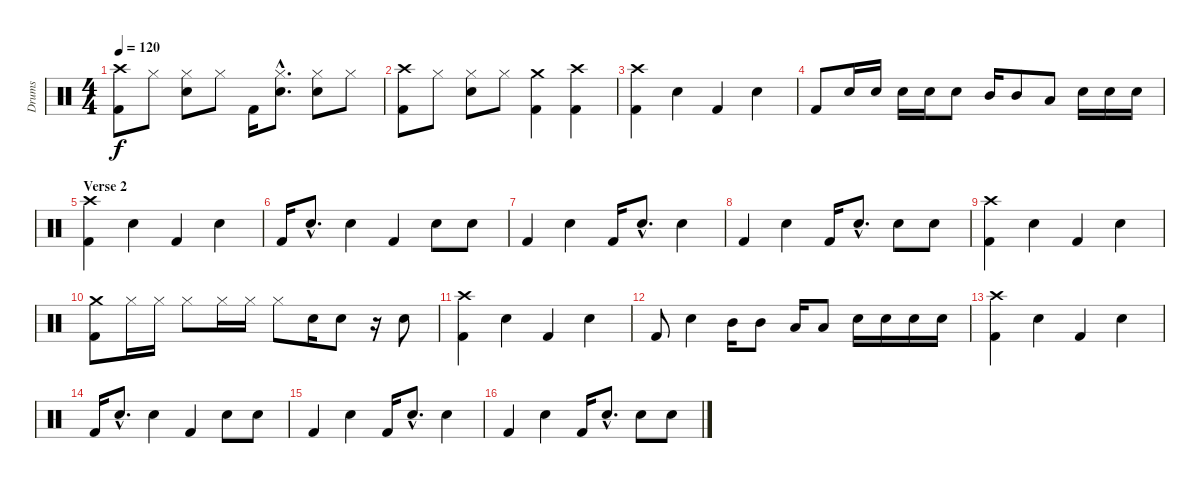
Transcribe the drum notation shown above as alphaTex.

\track ("Drums" "Drums") {instrument percussion}
\staff {score}
\articulation defaults
\ts (4 4)
\tempo 120
\clef neutral
\ks c
("Crash high (hit)" "Kick (hit) 2").8{dy f} "Hi-Hat (closed)".8 ("Electric Snare (hit)" "Hi-Hat (closed)").8 "Hi-Hat (closed)".8 "Kick (hit) 2".16 ("Electric Snare (hit)"{hac} "Hi-Hat (closed)"{hac}).8{d} ("Electric Snare (hit)" "Hi-Hat (closed)").8 "Hi-Hat (closed)".8 |
("Crash high (hit)" "Kick (hit) 2").8 "Hi-Hat (closed)".8 ("Electric Snare (hit)" "Hi-Hat (closed)").8 "Hi-Hat (closed)".8 ("Crash medium (hit)" "Kick (hit) 2").4 ("Crash high (hit)" "Kick (hit) 2").4 |
("Crash high (hit)" "Kick (hit) 2").4 "Electric Snare (hit)".4 "Kick (hit) 2".4 "Electric Snare (hit)".4 |
"Kick (hit) 2".8 "Electric Snare (hit)".16 "Electric Snare (hit)".16 "Electric Snare (hit)".16 "Electric Snare (hit)".16 "Electric Snare (hit)".8 "Mid Tom (hit)".16 "Mid Tom (hit)".8 "Low Tom (hit)".8 "Electric Snare (hit)".16 "Electric Snare (hit)".16 "Electric Snare (hit)".16 |
\section ("" "Verse 2")
("Crash high (hit)" "Kick (hit) 2").4 "Electric Snare (hit)".4 "Kick (hit) 2".4 "Electric Snare (hit)".4 |
"Kick (hit) 2".16 "Electric Snare (hit)"{hac}.8{d} "Electric Snare (hit)".4 "Kick (hit) 2".4 "Electric Snare (hit)".8 "Electric Snare (hit)".8 |
"Kick (hit) 2".4 "Electric Snare (hit)".4 "Kick (hit) 2".16 "Electric Snare (hit)"{hac}.8{d} "Electric Snare (hit)".4 |
"Kick (hit) 2".4 "Electric Snare (hit)".4 "Kick (hit) 2".16 "Electric Snare (hit)"{hac}.8{d} "Electric Snare (hit)".8 "Electric Snare (hit)".8 |
("Crash high (hit)" "Kick (hit) 2").4 "Electric Snare (hit)".4 "Kick (hit) 2".4 "Electric Snare (hit)".4 |
("Crash medium (hit)" "Kick (hit) 2").8 "Hi-Hat (closed)".16 "Hi-Hat (closed)".16 "Hi-Hat (closed)".8 "Hi-Hat (closed)".16 "Hi-Hat (closed)".16 "Hi-Hat (closed)".8 "Electric Snare (hit)".16 "Electric Snare (hit)".8 r.16 "Electric Snare (hit)".8 |
("Crash high (hit)" "Kick (hit) 2").4 "Electric Snare (hit)".4 "Kick (hit) 2".4 "Electric Snare (hit)".4 |
"Kick (hit) 2".8 "Electric Snare (hit)".4 "Mid Tom (hit)".16 "Mid Tom (hit)".8 "Low Tom (hit)".16 "Low Tom (hit)".8 "Electric Snare (hit)".16 "Electric Snare (hit)".16 "Electric Snare (hit)".16 "Electric Snare (hit)".16 |
("Crash high (hit)" "Kick (hit) 2").4 "Electric Snare (hit)".4 "Kick (hit) 2".4 "Electric Snare (hit)".4 |
"Kick (hit) 2".16 "Electric Snare (hit)"{hac}.8{d} "Electric Snare (hit)".4 "Kick (hit) 2".4 "Electric Snare (hit)".8 "Electric Snare (hit)".8 |
"Kick (hit) 2".4 "Electric Snare (hit)".4 "Kick (hit) 2".16 "Electric Snare (hit)"{hac}.8{d} "Electric Snare (hit)".4 |
"Kick (hit) 2".4 "Electric Snare (hit)".4 "Kick (hit) 2".16 "Electric Snare (hit)"{hac}.8{d} "Electric Snare (hit)".8 "Electric Snare (hit)".8
